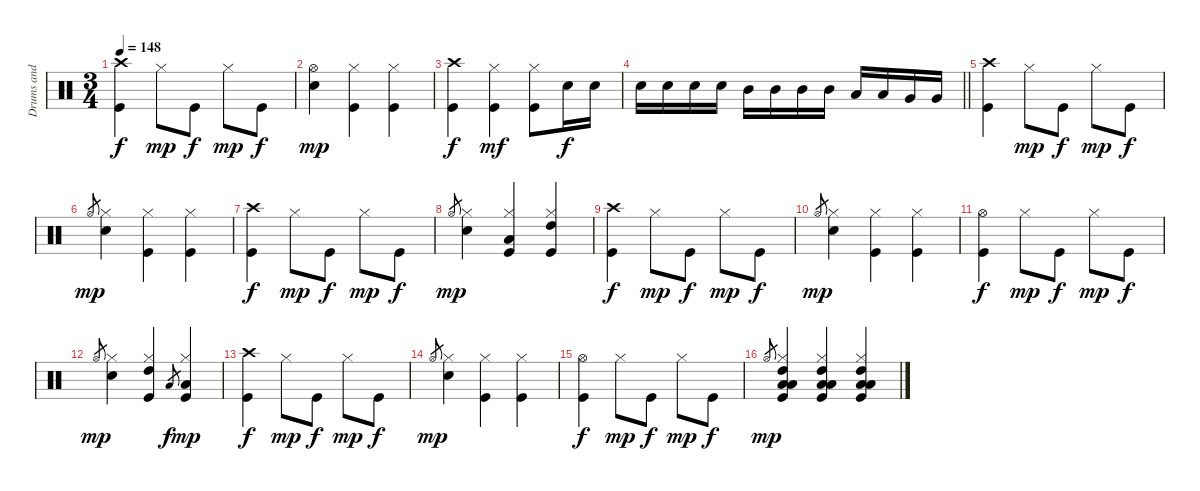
\track ("Drums and percussion" "Drums and ") {instrument percussion}
\staff {score}
\articulation defaults
\ts (3 4)
\tempo 148
\clef neutral
\ks c
("Crash high (hit)" "Kick (hit)").4{dy f} "Hi-Hat (closed)".8{dy mp} "Kick (hit)".8{dy f} "Hi-Hat (closed)".8{dy mp} "Kick (hit)".8{dy f} |
("Hi-Hat (open)" "Electric Snare (hit)").4{dy mp} ("Hi-Hat (closed)" "Kick (hit)").4 ("Hi-Hat (closed)" "Kick (hit)").4 |
("Crash high (hit)" "Kick (hit)").4{dy f} ("Hi-Hat (closed)" "Kick (hit)").4{dy mf} ("Hi-Hat (closed)" "Kick (hit)").8 "Electric Snare (hit)".16{dy f} "Electric Snare (hit)".16 |
\barLineRight lightlight "Electric Snare (hit)".16 "Electric Snare (hit)".16 "Electric Snare (hit)".16 "Electric Snare (hit)".16 "Mid Tom (hit)".16 "Mid Tom (hit)".16 "Mid Tom (hit)".16 "Mid Tom (hit)".16 "Low Tom (hit)".16 "Low Tom (hit)".16 "Very Low Tom (hit)".16 "Very Low Tom (hit)".16
|
("Crash high (hit)" "Kick (hit)").4 "Hi-Hat (closed)".8{dy mp} "Kick (hit)".8{dy f} "Hi-Hat (closed)".8{dy mp} "Kick (hit)".8{dy f} |
"Hi-Hat (open)".8{gr dy mp} ("Hi-Hat (closed)" "Electric Snare (hit)").4 ("Hi-Hat (closed)" "Kick (hit)").4 ("Hi-Hat (closed)" "Kick (hit)").4 |
("Crash high (hit)" "Kick (hit)").4{dy f} "Hi-Hat (closed)".8{dy mp} "Kick (hit)".8{dy f} "Hi-Hat (closed)".8{dy mp} "Kick (hit)".8{dy f} |
"Hi-Hat (open)".8{gr dy mp} ("Hi-Hat (closed)" "Electric Snare (hit)").4 ("Hi-Hat (closed)" "Low Tom (hit)" "Kick (hit)").4 ("Hi-Hat (closed)" "High Tom (hit)" "Kick (hit)").4 |
("Crash high (hit)" "Kick (hit)").4{dy f} "Hi-Hat (closed)".8{dy mp} "Kick (hit)".8{dy f} "Hi-Hat (closed)".8{dy mp} "Kick (hit)".8{dy f} |
"Hi-Hat (open)".8{gr dy mp} ("Hi-Hat (closed)" "Electric Snare (hit)").4 ("Hi-Hat (closed)" "Kick (hit)").4 ("Hi-Hat (closed)" "Kick (hit)").4 |
("Hi-Hat (open)" "Kick (hit)").4{dy f} "Hi-Hat (closed)".8{dy mp} "Kick (hit)".8{dy f} "Hi-Hat (closed)".8{dy mp} "Kick (hit)".8{dy f} |
"Hi-Hat (open)".8{gr dy mp} ("Hi-Hat (closed)" "Electric Snare (hit)").4 ("Hi-Hat (closed)" "High Tom (hit)" "Kick (hit)").4 "Low Tom (hit)".8{gr dy f} ("Hi-Hat (closed)" "Low Tom (hit)" "Kick (hit)").4{dy mp} |
("Crash high (hit)" "Kick (hit)").4{dy f} "Hi-Hat (closed)".8{dy mp} "Kick (hit)".8{dy f} "Hi-Hat (closed)".8{dy mp} "Kick (hit)".8{dy f} |
"Hi-Hat (open)".8{gr dy mp} ("Hi-Hat (closed)" "Electric Snare (hit)").4 ("Hi-Hat (closed)" "Kick (hit)").4 ("Hi-Hat (closed)" "Kick (hit)").4 |
("Hi-Hat (open)" "Kick (hit)").4{dy f} "Hi-Hat (closed)".8{dy mp} "Kick (hit)".8{dy f} "Hi-Hat (closed)".8{dy mp} "Kick (hit)".8{dy f} |
"Hi-Hat (open)".8{gr dy mp} ("Hi-Hat (closed)" "High Tom (hit)" "Low Floor Tom (hit)" "Low Tom (hit)" "Kick (hit)").4 ("Hi-Hat (closed)" "High Tom (hit)" "Low Floor Tom (hit)" "Low Tom (hit)" "Kick (hit)").4 ("Hi-Hat (closed)" "High Tom (hit)" "Low Floor Tom (hit)" "Low Tom (hit)" "Kick (hit)").4
